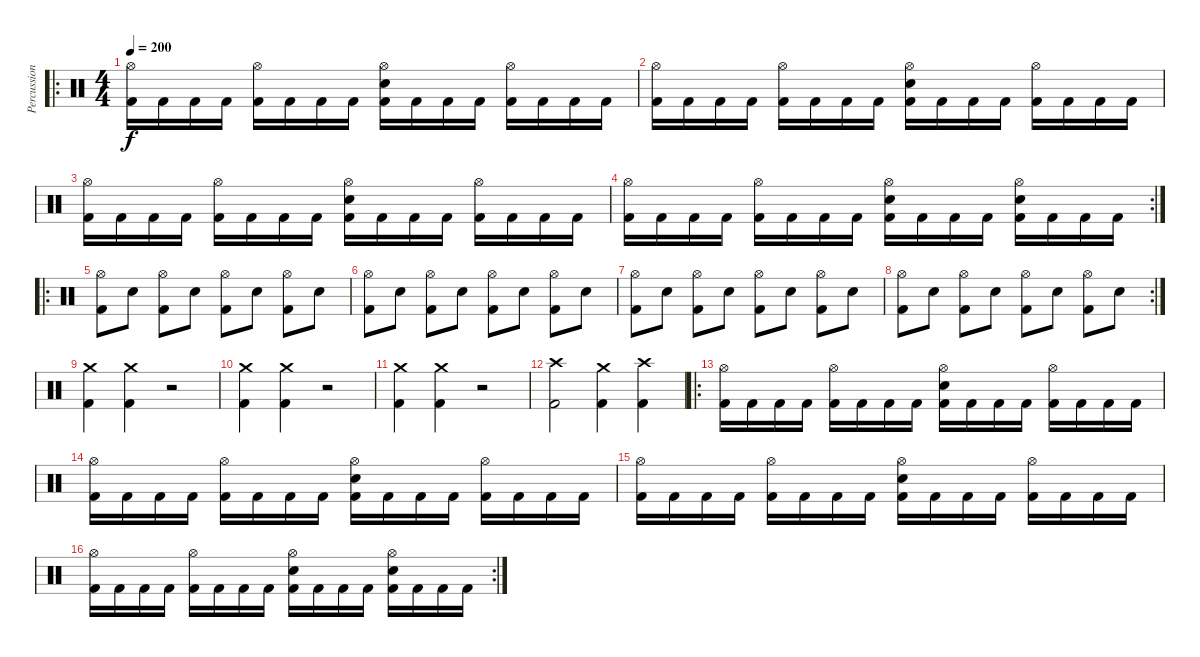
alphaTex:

\track ("Percussions" "Percussion") {instrument percussion}
\staff {score}
\articulation defaults
\ro
\ts (4 4)
\tempo 200
\clef neutral
\ks c
("Hi-Hat (open)" "Kick (hit) 2").16{dy f} "Kick (hit) 2".16 "Kick (hit) 2".16 "Kick (hit) 2".16 ("Hi-Hat (open)" "Kick (hit) 2").16 "Kick (hit) 2".16 "Kick (hit) 2".16 "Kick (hit) 2".16 ("Hi-Hat (open)" "Snare (hit) 2" "Kick (hit) 2").16 "Kick (hit) 2".16 "Kick (hit) 2".16 "Kick (hit) 2".16 ("Hi-Hat (open)" "Kick (hit) 2").16 "Kick (hit) 2".16 "Kick (hit) 2".16 "Kick (hit) 2".16 |
("Hi-Hat (open)" "Kick (hit) 2").16 "Kick (hit) 2".16 "Kick (hit) 2".16 "Kick (hit) 2".16 ("Hi-Hat (open)" "Kick (hit) 2").16 "Kick (hit) 2".16 "Kick (hit) 2".16 "Kick (hit) 2".16 ("Hi-Hat (open)" "Snare (hit) 2" "Kick (hit) 2").16 "Kick (hit) 2".16 "Kick (hit) 2".16 "Kick (hit) 2".16 ("Hi-Hat (open)" "Kick (hit) 2").16 "Kick (hit) 2".16 "Kick (hit) 2".16 "Kick (hit) 2".16 |
("Hi-Hat (open)" "Kick (hit) 2").16 "Kick (hit) 2".16 "Kick (hit) 2".16 "Kick (hit) 2".16 ("Hi-Hat (open)" "Kick (hit) 2").16 "Kick (hit) 2".16 "Kick (hit) 2".16 "Kick (hit) 2".16 ("Hi-Hat (open)" "Snare (hit) 2" "Kick (hit) 2").16 "Kick (hit) 2".16 "Kick (hit) 2".16 "Kick (hit) 2".16 ("Hi-Hat (open)" "Kick (hit) 2").16 "Kick (hit) 2".16 "Kick (hit) 2".16 "Kick (hit) 2".16 |
\rc 2
("Hi-Hat (open)" "Kick (hit) 2").16 "Kick (hit) 2".16 "Kick (hit) 2".16 "Kick (hit) 2".16 ("Hi-Hat (open)" "Kick (hit) 2").16 "Kick (hit) 2".16 "Kick (hit) 2".16 "Kick (hit) 2".16 ("Hi-Hat (open)" "Snare (hit) 2" "Kick (hit) 2").16 "Kick (hit) 2".16 "Kick (hit) 2".16 "Kick (hit) 2".16 ("Hi-Hat (open)" "Snare (hit) 2" "Kick (hit) 2").16 "Kick (hit) 2".16 "Kick (hit) 2".16 "Kick (hit) 2".16 |
\ro
("Hi-Hat (open)" "Kick (hit) 2").8 "Snare (hit) 2".8 ("Hi-Hat (open)" "Kick (hit) 2").8 "Snare (hit) 2".8 ("Hi-Hat (open)" "Kick (hit) 2").8 "Snare (hit) 2".8 ("Hi-Hat (open)" "Kick (hit) 2").8 "Snare (hit) 2".8 |
("Hi-Hat (open)" "Kick (hit) 2").8 "Snare (hit) 2".8 ("Hi-Hat (open)" "Kick (hit) 2").8 "Snare (hit) 2".8 ("Hi-Hat (open)" "Kick (hit) 2").8 "Snare (hit) 2".8 ("Hi-Hat (open)" "Kick (hit) 2").8 "Snare (hit) 2".8 |
("Hi-Hat (open)" "Kick (hit) 2").8 "Snare (hit) 2".8 ("Hi-Hat (open)" "Kick (hit) 2").8 "Snare (hit) 2".8 ("Hi-Hat (open)" "Kick (hit) 2").8 "Snare (hit) 2".8 ("Hi-Hat (open)" "Kick (hit) 2").8 "Snare (hit) 2".8 |
\rc 2
("Hi-Hat (open)" "Kick (hit) 2").8 "Snare (hit) 2".8 ("Hi-Hat (open)" "Kick (hit) 2").8 "Snare (hit) 2".8 ("Hi-Hat (open)" "Kick (hit) 2").8 "Snare (hit) 2".8 ("Hi-Hat (open)" "Kick (hit) 2").8 "Snare (hit) 2".8 |
("Crash medium (hit)" "Kick (hit) 2").4 ("Crash medium (hit)" "Kick (hit) 2").4 r.2 |
("Crash medium (hit)" "Kick (hit) 2").4 ("Crash medium (hit)" "Kick (hit) 2").4 r.2 |
("Crash medium (hit)" "Kick (hit) 2").4 ("Crash medium (hit)" "Kick (hit) 2").4 r.2 |
("Crash high (hit)" "Kick (hit) 2").2 ("Crash medium (hit)" "Kick (hit) 2").4 ("Crash high (hit)" "Kick (hit) 2").4 |
\ro
("Hi-Hat (open)" "Kick (hit) 2").16 "Kick (hit) 2".16 "Kick (hit) 2".16 "Kick (hit) 2".16 ("Hi-Hat (open)" "Kick (hit) 2").16 "Kick (hit) 2".16 "Kick (hit) 2".16 "Kick (hit) 2".16 ("Hi-Hat (open)" "Snare (hit) 2" "Kick (hit) 2").16 "Kick (hit) 2".16 "Kick (hit) 2".16 "Kick (hit) 2".16 ("Hi-Hat (open)" "Kick (hit) 2").16 "Kick (hit) 2".16 "Kick (hit) 2".16 "Kick (hit) 2".16 |
("Hi-Hat (open)" "Kick (hit) 2").16 "Kick (hit) 2".16 "Kick (hit) 2".16 "Kick (hit) 2".16 ("Hi-Hat (open)" "Kick (hit) 2").16 "Kick (hit) 2".16 "Kick (hit) 2".16 "Kick (hit) 2".16 ("Hi-Hat (open)" "Snare (hit) 2" "Kick (hit) 2").16 "Kick (hit) 2".16 "Kick (hit) 2".16 "Kick (hit) 2".16 ("Hi-Hat (open)" "Kick (hit) 2").16 "Kick (hit) 2".16 "Kick (hit) 2".16 "Kick (hit) 2".16 |
("Hi-Hat (open)" "Kick (hit) 2").16 "Kick (hit) 2".16 "Kick (hit) 2".16 "Kick (hit) 2".16 ("Hi-Hat (open)" "Kick (hit) 2").16 "Kick (hit) 2".16 "Kick (hit) 2".16 "Kick (hit) 2".16 ("Hi-Hat (open)" "Snare (hit) 2" "Kick (hit) 2").16 "Kick (hit) 2".16 "Kick (hit) 2".16 "Kick (hit) 2".16 ("Hi-Hat (open)" "Kick (hit) 2").16 "Kick (hit) 2".16 "Kick (hit) 2".16 "Kick (hit) 2".16 |
\rc 2
("Hi-Hat (open)" "Kick (hit) 2").16 "Kick (hit) 2".16 "Kick (hit) 2".16 "Kick (hit) 2".16 ("Hi-Hat (open)" "Kick (hit) 2").16 "Kick (hit) 2".16 "Kick (hit) 2".16 "Kick (hit) 2".16 ("Hi-Hat (open)" "Snare (hit) 2" "Kick (hit) 2").16 "Kick (hit) 2".16 "Kick (hit) 2".16 "Kick (hit) 2".16 ("Hi-Hat (open)" "Snare (hit) 2" "Kick (hit) 2").16 "Kick (hit) 2".16 "Kick (hit) 2".16 "Kick (hit) 2".16
